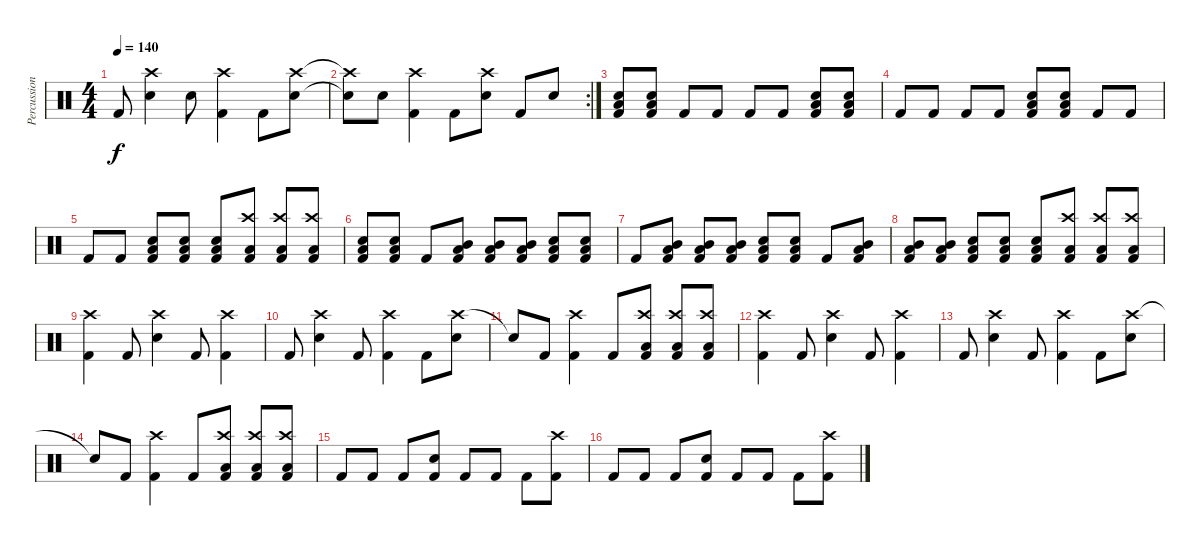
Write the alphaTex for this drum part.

\track ("Percussion" "Percussion") {instrument percussion}
\staff {score}
\articulation defaults
\ts (4 4)
\tempo 140
\clef neutral
\ks c "Kick (hit) 2".8{dy f}
("Crash high (hit)" "Electric Snare (hit)").4 "Electric Snare (hit)".8 ("Crash high (hit)" "Kick (hit) 2").4 "Kick (hit) 2".8 ("Crash high (hit)" "Electric Snare (hit)").8 |
\rc 2
("Crash high (hit)"{t} "Snare (hit)"{t}).8 "Electric Snare (hit)".8 ("Crash high (hit)" "Kick (hit) 2").4 "Kick (hit) 2".8 ("Crash high (hit)" "Electric Snare (hit)").8 "Kick (hit) 2".8 "Electric Snare (hit)".8 |
("Electric Snare (hit)" "Low Floor Tom (hit)" "Kick (hit) 2").8 ("Electric Snare (hit)" "Low Floor Tom (hit)" "Kick (hit) 2").8 "Kick (hit) 2".8 "Kick (hit) 2".8 "Kick (hit) 2".8 "Kick (hit) 2".8 ("Low Floor Tom (hit)" "Electric Snare (hit)" "Kick (hit) 2").8 ("Low Floor Tom (hit)" "Electric Snare (hit)" "Kick (hit) 2").8 |
"Kick (hit) 2".8 "Kick (hit) 2".8 "Kick (hit) 2".8 "Kick (hit) 2".8 ("Electric Snare (hit)" "Low Floor Tom (hit)" "Kick (hit) 2").8 ("Electric Snare (hit)" "Low Floor Tom (hit)" "Kick (hit) 2").8 "Kick (hit) 2".8 "Kick (hit) 2".8 |
"Kick (hit) 2".8 "Kick (hit) 2".8 ("Electric Snare (hit)" "Low Floor Tom (hit)" "Kick (hit) 2").8 ("Electric Snare (hit)" "Low Floor Tom (hit)" "Kick (hit) 2").8 ("Electric Snare (hit)" "Low Floor Tom (hit)" "Kick (hit) 2").8 ("Crash high (hit)" "Low Floor Tom (hit)" "Kick (hit) 2").8 ("Crash high (hit)" "Low Floor Tom (hit)" "Kick (hit) 2").8 ("Crash high (hit)" "Low Floor Tom (hit)" "Kick (hit) 2").8 |
("Electric Snare (hit)" "Low Floor Tom (hit)" "Kick (hit) 2").8 ("Electric Snare (hit)" "Low Floor Tom (hit)" "Kick (hit) 2").8 "Kick (hit) 2".8 ("Mid Tom (hit)" "Low Floor Tom (hit)" "Kick (hit) 2").8 ("Mid Tom (hit)" "Low Floor Tom (hit)" "Kick (hit) 2").8 ("Mid Tom (hit)" "Low Floor Tom (hit)" "Kick (hit) 2").8 ("Low Floor Tom (hit)" "Electric Snare (hit)" "Kick (hit) 2").8 ("Low Floor Tom (hit)" "Electric Snare (hit)" "Kick (hit) 2").8 |
"Kick (hit) 2".8 ("Mid Tom (hit)" "Low Floor Tom (hit)" "Kick (hit) 2").8 ("Mid Tom (hit)" "Low Floor Tom (hit)" "Kick (hit) 2").8 ("Mid Tom (hit)" "Low Floor Tom (hit)" "Kick (hit) 2").8 ("Electric Snare (hit)" "Low Floor Tom (hit)" "Kick (hit) 2").8 ("Electric Snare (hit)" "Low Floor Tom (hit)" "Kick (hit) 2").8 "Kick (hit) 2".8 ("Mid Tom (hit)" "Low Floor Tom (hit)" "Kick (hit) 2").8 |
("Mid Tom (hit)" "Low Floor Tom (hit)" "Kick (hit) 2").8 ("Mid Tom (hit)" "Low Floor Tom (hit)" "Kick (hit) 2").8 ("Electric Snare (hit)" "Low Floor Tom (hit)" "Kick (hit) 2").8 ("Electric Snare (hit)" "Low Floor Tom (hit)" "Kick (hit) 2").8 ("Electric Snare (hit)" "Low Floor Tom (hit)" "Kick (hit) 2").8 ("Crash high (hit)" "Low Floor Tom (hit)" "Kick (hit) 2").8 ("Crash high (hit)" "Low Floor Tom (hit)" "Kick (hit) 2").8 ("Crash high (hit)" "Low Floor Tom (hit)" "Kick (hit) 2").8 |
("Crash high (hit)" "Kick (hit) 2").4 "Kick (hit) 2".8 ("Crash high (hit)" "Electric Snare (hit)").4 "Kick (hit) 2".8 ("Crash high (hit)" "Kick (hit) 2").4 |
"Kick (hit) 2".8 ("Crash high (hit)" "Electric Snare (hit)").4 "Kick (hit) 2".8 ("Crash high (hit)" "Kick (hit) 2").4 "Kick (hit) 2".8 ("Crash high (hit)" "Electric Snare (hit)").8 |
"Snare (hit)"{t}.8 "Kick (hit) 2".8 ("Crash high (hit)" "Kick (hit) 2").4 "Kick (hit) 2".8 ("Crash high (hit)" "Low Floor Tom (hit)" "Kick (hit) 2").8 ("Crash high (hit)" "Low Floor Tom (hit)" "Kick (hit) 2").8 ("Crash high (hit)" "Low Floor Tom (hit)" "Kick (hit) 2").8 |
("Crash high (hit)" "Kick (hit) 2").4 "Kick (hit) 2".8 ("Crash high (hit)" "Electric Snare (hit)").4 "Kick (hit) 2".8 ("Crash high (hit)" "Kick (hit) 2").4 |
"Kick (hit) 2".8 ("Crash high (hit)" "Electric Snare (hit)").4 "Kick (hit) 2".8 ("Crash high (hit)" "Kick (hit) 2").4 "Kick (hit) 2".8 ("Crash high (hit)" "Electric Snare (hit)").8 |
"Snare (hit)"{t}.8 "Kick (hit) 2".8 ("Crash high (hit)" "Kick (hit) 2").4 "Kick (hit) 2".8 ("Crash high (hit)" "Low Floor Tom (hit)" "Kick (hit) 2").8 ("Crash high (hit)" "Low Floor Tom (hit)" "Kick (hit) 2").8 ("Crash high (hit)" "Low Floor Tom (hit)" "Kick (hit) 2").8 |
"Kick (hit) 2".8 "Kick (hit) 2".8 "Kick (hit) 2".8 ("Electric Snare (hit)" "Kick (hit) 2").8 "Kick (hit) 2".8 "Kick (hit) 2".8 "Kick (hit) 2".8 ("Crash high (hit)" "Kick (hit) 2").8 |
"Kick (hit) 2".8 "Kick (hit) 2".8 "Kick (hit) 2".8 ("Electric Snare (hit)" "Kick (hit) 2").8 "Kick (hit) 2".8 "Kick (hit) 2".8 "Kick (hit) 2".8 ("Crash high (hit)" "Kick (hit) 2").8
